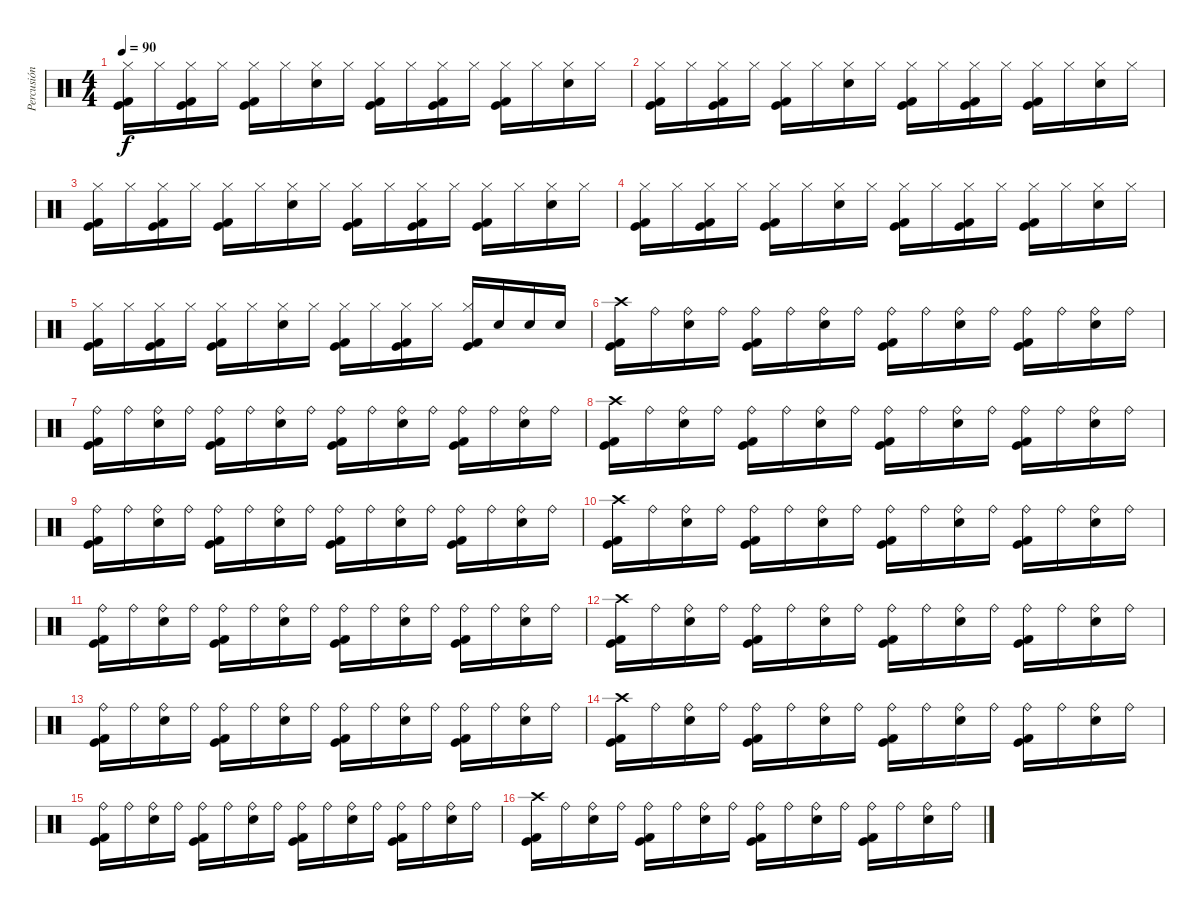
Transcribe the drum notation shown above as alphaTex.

\track ("Percusión" "Percusión") {instrument percussion}
\staff {score}
\articulation defaults
\ts (4 4)
\tempo 90
\clef neutral
\ks c
("Kick (hit) 2" "Hi-Hat (closed)" "Kick (hit)").16{dy f} "Hi-Hat (closed)".16 ("Kick (hit) 2" "Hi-Hat (closed)" "Kick (hit)").16 "Hi-Hat (closed)".16 ("Kick (hit) 2" "Hi-Hat (closed)" "Kick (hit)").16 "Hi-Hat (closed)".16 ("Snare (hit) 2" "Hi-Hat (closed)").16 "Hi-Hat (closed)".16 ("Kick (hit) 2" "Hi-Hat (closed)" "Kick (hit)").16 "Hi-Hat (closed)".16 ("Kick (hit) 2" "Hi-Hat (closed)" "Kick (hit)").16 "Hi-Hat (closed)".16 ("Kick (hit) 2" "Hi-Hat (closed)" "Kick (hit)").16 "Hi-Hat (closed)".16 ("Snare (hit) 2" "Hi-Hat (closed)").16 "Hi-Hat (closed)".16 |
("Kick (hit) 2" "Hi-Hat (closed)" "Kick (hit)").16 "Hi-Hat (closed)".16 ("Kick (hit) 2" "Hi-Hat (closed)" "Kick (hit)").16 "Hi-Hat (closed)".16 ("Kick (hit) 2" "Hi-Hat (closed)" "Kick (hit)").16 "Hi-Hat (closed)".16 ("Snare (hit) 2" "Hi-Hat (closed)").16 "Hi-Hat (closed)".16 ("Kick (hit) 2" "Hi-Hat (closed)" "Kick (hit)").16 "Hi-Hat (closed)".16 ("Kick (hit) 2" "Hi-Hat (closed)" "Kick (hit)").16 "Hi-Hat (closed)".16 ("Kick (hit) 2" "Hi-Hat (closed)" "Kick (hit)").16 "Hi-Hat (closed)".16 ("Snare (hit) 2" "Hi-Hat (closed)").16 "Hi-Hat (closed)".16 |
("Kick (hit) 2" "Hi-Hat (closed)" "Kick (hit)").16 "Hi-Hat (closed)".16 ("Kick (hit) 2" "Hi-Hat (closed)" "Kick (hit)").16 "Hi-Hat (closed)".16 ("Kick (hit) 2" "Hi-Hat (closed)" "Kick (hit)").16 "Hi-Hat (closed)".16 ("Snare (hit) 2" "Hi-Hat (closed)").16 "Hi-Hat (closed)".16 ("Kick (hit) 2" "Hi-Hat (closed)" "Kick (hit)").16 "Hi-Hat (closed)".16 ("Kick (hit) 2" "Hi-Hat (closed)" "Kick (hit)").16 "Hi-Hat (closed)".16 ("Kick (hit) 2" "Hi-Hat (closed)" "Kick (hit)").16 "Hi-Hat (closed)".16 ("Snare (hit) 2" "Hi-Hat (closed)").16 "Hi-Hat (closed)".16 |
("Kick (hit) 2" "Hi-Hat (closed)" "Kick (hit)").16 "Hi-Hat (closed)".16 ("Kick (hit) 2" "Hi-Hat (closed)" "Kick (hit)").16 "Hi-Hat (closed)".16 ("Kick (hit) 2" "Hi-Hat (closed)" "Kick (hit)").16 "Hi-Hat (closed)".16 ("Snare (hit) 2" "Hi-Hat (closed)").16 "Hi-Hat (closed)".16 ("Kick (hit) 2" "Hi-Hat (closed)" "Kick (hit)").16 "Hi-Hat (closed)".16 ("Kick (hit) 2" "Hi-Hat (closed)" "Kick (hit)").16 "Hi-Hat (closed)".16 ("Kick (hit) 2" "Hi-Hat (closed)" "Kick (hit)").16 "Hi-Hat (closed)".16 ("Snare (hit) 2" "Hi-Hat (closed)").16 "Hi-Hat (closed)".16 |
("Kick (hit) 2" "Hi-Hat (closed)" "Kick (hit)").16 "Hi-Hat (closed)".16 ("Kick (hit) 2" "Hi-Hat (closed)" "Kick (hit)").16 "Hi-Hat (closed)".16 ("Kick (hit) 2" "Hi-Hat (closed)" "Kick (hit)").16 "Hi-Hat (closed)".16 ("Snare (hit) 2" "Hi-Hat (closed)").16 "Hi-Hat (closed)".16 ("Kick (hit) 2" "Hi-Hat (closed)" "Kick (hit)").16 "Hi-Hat (closed)".16 ("Kick (hit) 2" "Hi-Hat (closed)" "Kick (hit)").16 "Hi-Hat (closed)".16 ("Kick (hit) 2" "Hi-Hat (closed)" "Kick (hit)").16 "Snare (hit) 2".16 "Snare (hit) 2".16 "Snare (hit) 2".16 |
("Kick (hit) 2" "Crash high (hit)" "Kick (hit)").16 "Ride (bell)".16 ("Snare (hit) 2" "Ride (bell)").16 "Ride (bell)".16 ("Kick (hit) 2" "Ride (bell)" "Kick (hit)").16 "Ride (bell)".16 ("Snare (hit) 2" "Ride (bell)").16 "Ride (bell)".16 ("Kick (hit) 2" "Ride (bell)" "Kick (hit)").16 "Ride (bell)".16 ("Snare (hit) 2" "Ride (bell)").16 "Ride (bell)".16 ("Kick (hit) 2" "Ride (bell)" "Kick (hit)").16 "Ride (bell)".16 ("Snare (hit) 2" "Ride (bell)").16 "Ride (bell)".16 |
("Kick (hit) 2" "Ride (bell)" "Kick (hit)").16 "Ride (bell)".16 ("Snare (hit) 2" "Ride (bell)").16 "Ride (bell)".16 ("Kick (hit) 2" "Ride (bell)" "Kick (hit)").16 "Ride (bell)".16 ("Snare (hit) 2" "Ride (bell)").16 "Ride (bell)".16 ("Kick (hit) 2" "Ride (bell)" "Kick (hit)").16 "Ride (bell)".16 ("Snare (hit) 2" "Ride (bell)").16 "Ride (bell)".16 ("Kick (hit) 2" "Ride (bell)" "Kick (hit)").16 "Ride (bell)".16 ("Snare (hit) 2" "Ride (bell)").16 "Ride (bell)".16 |
("Kick (hit) 2" "Crash high (hit)" "Kick (hit)").16 "Ride (bell)".16 ("Snare (hit) 2" "Ride (bell)").16 "Ride (bell)".16 ("Kick (hit) 2" "Ride (bell)" "Kick (hit)").16 "Ride (bell)".16 ("Snare (hit) 2" "Ride (bell)").16 "Ride (bell)".16 ("Kick (hit) 2" "Ride (bell)" "Kick (hit)").16 "Ride (bell)".16 ("Snare (hit) 2" "Ride (bell)").16 "Ride (bell)".16 ("Kick (hit) 2" "Ride (bell)" "Kick (hit)").16 "Ride (bell)".16 ("Snare (hit) 2" "Ride (bell)").16 "Ride (bell)".16 |
("Kick (hit) 2" "Ride (bell)" "Kick (hit)").16 "Ride (bell)".16 ("Snare (hit) 2" "Ride (bell)").16 "Ride (bell)".16 ("Kick (hit) 2" "Ride (bell)" "Kick (hit)").16 "Ride (bell)".16 ("Snare (hit) 2" "Ride (bell)").16 "Ride (bell)".16 ("Kick (hit) 2" "Ride (bell)" "Kick (hit)").16 "Ride (bell)".16 ("Snare (hit) 2" "Ride (bell)").16 "Ride (bell)".16 ("Kick (hit) 2" "Ride (bell)" "Kick (hit)").16 "Ride (bell)".16 ("Snare (hit) 2" "Ride (bell)").16 "Ride (bell)".16 |
("Kick (hit) 2" "Crash high (hit)" "Kick (hit)").16 "Ride (bell)".16 ("Snare (hit) 2" "Ride (bell)").16 "Ride (bell)".16 ("Kick (hit) 2" "Ride (bell)" "Kick (hit)").16 "Ride (bell)".16 ("Snare (hit) 2" "Ride (bell)").16 "Ride (bell)".16 ("Kick (hit) 2" "Ride (bell)" "Kick (hit)").16 "Ride (bell)".16 ("Snare (hit) 2" "Ride (bell)").16 "Ride (bell)".16 ("Kick (hit) 2" "Ride (bell)" "Kick (hit)").16 "Ride (bell)".16 ("Snare (hit) 2" "Ride (bell)").16 "Ride (bell)".16 |
("Kick (hit) 2" "Ride (bell)" "Kick (hit)").16 "Ride (bell)".16 ("Snare (hit) 2" "Ride (bell)").16 "Ride (bell)".16 ("Kick (hit) 2" "Ride (bell)" "Kick (hit)").16 "Ride (bell)".16 ("Snare (hit) 2" "Ride (bell)").16 "Ride (bell)".16 ("Kick (hit) 2" "Ride (bell)" "Kick (hit)").16 "Ride (bell)".16 ("Snare (hit) 2" "Ride (bell)").16 "Ride (bell)".16 ("Kick (hit) 2" "Ride (bell)" "Kick (hit)").16 "Ride (bell)".16 ("Snare (hit) 2" "Ride (bell)").16 "Ride (bell)".16 |
("Kick (hit) 2" "Crash high (hit)" "Kick (hit)").16 "Ride (bell)".16 ("Snare (hit) 2" "Ride (bell)").16 "Ride (bell)".16 ("Kick (hit) 2" "Ride (bell)" "Kick (hit)").16 "Ride (bell)".16 ("Snare (hit) 2" "Ride (bell)").16 "Ride (bell)".16 ("Kick (hit) 2" "Ride (bell)" "Kick (hit)").16 "Ride (bell)".16 ("Snare (hit) 2" "Ride (bell)").16 "Ride (bell)".16 ("Kick (hit) 2" "Ride (bell)" "Kick (hit)").16 "Ride (bell)".16 ("Snare (hit) 2" "Ride (bell)").16 "Ride (bell)".16 |
("Kick (hit) 2" "Ride (bell)" "Kick (hit)").16 "Ride (bell)".16 ("Snare (hit) 2" "Ride (bell)").16 "Ride (bell)".16 ("Kick (hit) 2" "Ride (bell)" "Kick (hit)").16 "Ride (bell)".16 ("Snare (hit) 2" "Ride (bell)").16 "Ride (bell)".16 ("Kick (hit) 2" "Ride (bell)" "Kick (hit)").16 "Ride (bell)".16 ("Snare (hit) 2" "Ride (bell)").16 "Ride (bell)".16 ("Kick (hit) 2" "Ride (bell)" "Kick (hit)").16 "Ride (bell)".16 ("Snare (hit) 2" "Ride (bell)").16 "Ride (bell)".16 |
("Kick (hit) 2" "Crash high (hit)" "Kick (hit)").16 "Ride (bell)".16 ("Snare (hit) 2" "Ride (bell)").16 "Ride (bell)".16 ("Kick (hit) 2" "Ride (bell)" "Kick (hit)").16 "Ride (bell)".16 ("Snare (hit) 2" "Ride (bell)").16 "Ride (bell)".16 ("Kick (hit) 2" "Ride (bell)" "Kick (hit)").16 "Ride (bell)".16 ("Snare (hit) 2" "Ride (bell)").16 "Ride (bell)".16 ("Kick (hit) 2" "Ride (bell)" "Kick (hit)").16 "Ride (bell)".16 ("Snare (hit) 2" "Ride (bell)").16 "Ride (bell)".16 |
("Kick (hit) 2" "Ride (bell)" "Kick (hit)").16 "Ride (bell)".16 ("Snare (hit) 2" "Ride (bell)").16 "Ride (bell)".16 ("Kick (hit) 2" "Ride (bell)" "Kick (hit)").16 "Ride (bell)".16 ("Snare (hit) 2" "Ride (bell)").16 "Ride (bell)".16 ("Kick (hit) 2" "Ride (bell)" "Kick (hit)").16 "Ride (bell)".16 ("Snare (hit) 2" "Ride (bell)").16 "Ride (bell)".16 ("Kick (hit) 2" "Ride (bell)" "Kick (hit)").16 "Ride (bell)".16 ("Snare (hit) 2" "Ride (bell)").16 "Ride (bell)".16 |
("Kick (hit) 2" "Crash high (hit)" "Kick (hit)").16 "Ride (bell)".16 ("Snare (hit) 2" "Ride (bell)").16 "Ride (bell)".16 ("Kick (hit) 2" "Ride (bell)" "Kick (hit)").16 "Ride (bell)".16 ("Snare (hit) 2" "Ride (bell)").16 "Ride (bell)".16 ("Kick (hit) 2" "Ride (bell)" "Kick (hit)").16 "Ride (bell)".16 ("Snare (hit) 2" "Ride (bell)").16 "Ride (bell)".16 ("Kick (hit) 2" "Ride (bell)" "Kick (hit)").16 "Ride (bell)".16 ("Snare (hit) 2" "Ride (bell)").16 "Ride (bell)".16
